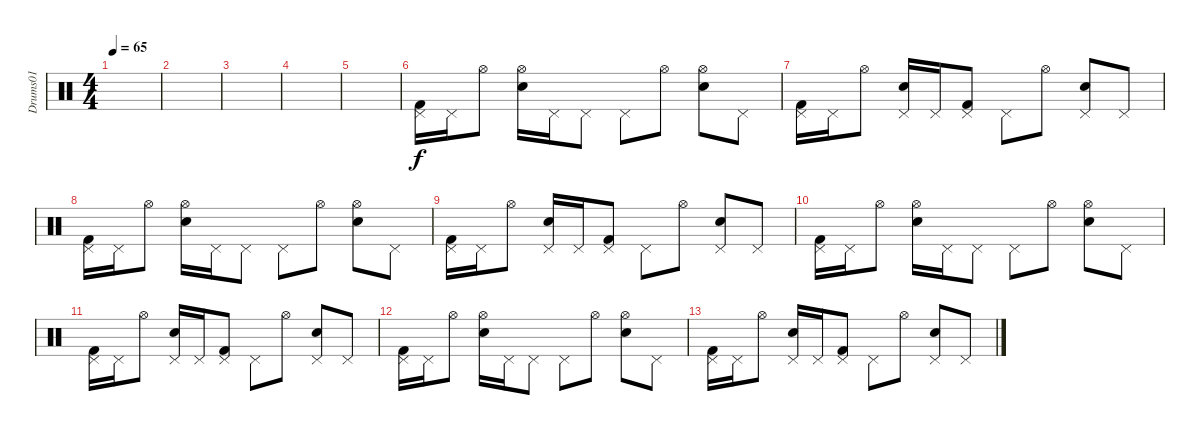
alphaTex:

\track ("Drums01" "Drums01") {instrument percussion}
\staff {score}
\articulation defaults
\ts (4 4)
\tempo 65
\clef neutral
\ks c
|
|
|
|
|
("Pedal Hi-Hat (hit)" "Kick (hit) 2").16 "Pedal Hi-Hat (hit)".16 "Hi-Hat (open)".8 ("Hi-Hat (open)" "Snare (hit) 2").16 "Pedal Hi-Hat (hit)".16 "Pedal Hi-Hat (hit)".8 "Pedal Hi-Hat (hit)".8 "Hi-Hat (open)".8 ("Hi-Hat (open)" "Snare (hit) 2").8 "Pedal Hi-Hat (hit)".8 |
("Pedal Hi-Hat (hit)" "Kick (hit) 2").16 "Pedal Hi-Hat (hit)".16 "Hi-Hat (open)".8 ("Pedal Hi-Hat (hit)" "Snare (hit) 2").16 "Pedal Hi-Hat (hit)".16 ("Pedal Hi-Hat (hit)" "Kick (hit) 2").8 "Pedal Hi-Hat (hit)".8 "Hi-Hat (open)".8 ("Pedal Hi-Hat (hit)" "Snare (hit) 2").8 "Pedal Hi-Hat (hit)".8 |
("Pedal Hi-Hat (hit)" "Kick (hit) 2").16 "Pedal Hi-Hat (hit)".16 "Hi-Hat (open)".8 ("Hi-Hat (open)" "Snare (hit) 2").16 "Pedal Hi-Hat (hit)".16 "Pedal Hi-Hat (hit)".8 "Pedal Hi-Hat (hit)".8 "Hi-Hat (open)".8 ("Hi-Hat (open)" "Snare (hit) 2").8 "Pedal Hi-Hat (hit)".8 |
("Pedal Hi-Hat (hit)" "Kick (hit) 2").16 "Pedal Hi-Hat (hit)".16 "Hi-Hat (open)".8 ("Pedal Hi-Hat (hit)" "Snare (hit) 2").16 "Pedal Hi-Hat (hit)".16 ("Pedal Hi-Hat (hit)" "Kick (hit) 2").8 "Pedal Hi-Hat (hit)".8 "Hi-Hat (open)".8 ("Pedal Hi-Hat (hit)" "Snare (hit) 2").8 "Pedal Hi-Hat (hit)".8 |
("Pedal Hi-Hat (hit)" "Kick (hit) 2").16 "Pedal Hi-Hat (hit)".16 "Hi-Hat (open)".8 ("Hi-Hat (open)" "Snare (hit) 2").16 "Pedal Hi-Hat (hit)".16 "Pedal Hi-Hat (hit)".8 "Pedal Hi-Hat (hit)".8 "Hi-Hat (open)".8 ("Hi-Hat (open)" "Snare (hit) 2").8 "Pedal Hi-Hat (hit)".8 |
("Pedal Hi-Hat (hit)" "Kick (hit) 2").16 "Pedal Hi-Hat (hit)".16 "Hi-Hat (open)".8 ("Pedal Hi-Hat (hit)" "Snare (hit) 2").16 "Pedal Hi-Hat (hit)".16 ("Pedal Hi-Hat (hit)" "Kick (hit) 2").8 "Pedal Hi-Hat (hit)".8 "Hi-Hat (open)".8 ("Pedal Hi-Hat (hit)" "Snare (hit) 2").8 "Pedal Hi-Hat (hit)".8 |
("Pedal Hi-Hat (hit)" "Kick (hit) 2").16 "Pedal Hi-Hat (hit)".16 "Hi-Hat (open)".8 ("Hi-Hat (open)" "Snare (hit) 2").16 "Pedal Hi-Hat (hit)".16 "Pedal Hi-Hat (hit)".8 "Pedal Hi-Hat (hit)".8 "Hi-Hat (open)".8 ("Hi-Hat (open)" "Snare (hit) 2").8 "Pedal Hi-Hat (hit)".8 |
("Pedal Hi-Hat (hit)" "Kick (hit) 2").16 "Pedal Hi-Hat (hit)".16 "Hi-Hat (open)".8 ("Pedal Hi-Hat (hit)" "Snare (hit) 2").16 "Pedal Hi-Hat (hit)".16 ("Pedal Hi-Hat (hit)" "Kick (hit) 2").8 "Pedal Hi-Hat (hit)".8 "Hi-Hat (open)".8 ("Pedal Hi-Hat (hit)" "Snare (hit) 2").8 "Pedal Hi-Hat (hit)".8
